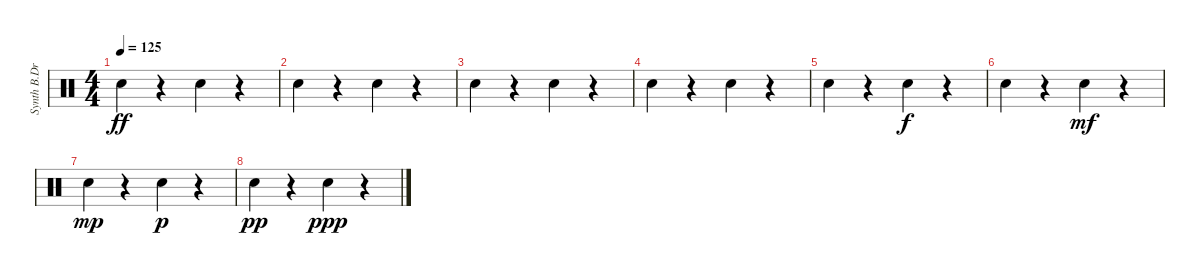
\track ("Synth B.Drum" "Synth B.Dr") {instrument percussion}
\staff {score}
\articulation defaults
\ts (4 4)
\tempo 125
\clef neutral
\ks c "Snare (hit)".4{dy ff}
r.4 "Snare (hit)".4 r.4 |
"Snare (hit)".4 r.4 "Snare (hit)".4 r.4 |
"Snare (hit)".4 r.4 "Snare (hit)".4 r.4 |
"Snare (hit)".4 r.4 "Snare (hit)".4 r.4 |
"Snare (hit)".4 r.4 "Snare (hit)".4{dy f} r.4 |
"Snare (hit)".4 r.4 "Snare (hit)".4{dy mf} r.4 |
"Snare (hit)".4{dy mp} r.4 "Snare (hit)".4{dy p} r.4 |
"Snare (hit)".4{dy pp} r.4 "Snare (hit)".4{dy ppp} r.4
